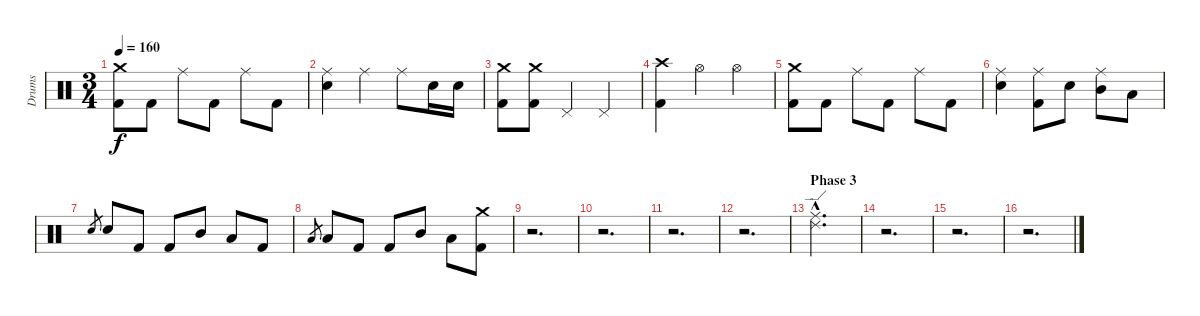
\track ("Drums" "Drums") {instrument percussion}
\staff {score}
\articulation defaults
\ts (3 4)
\tempo 160
\clef neutral
\ks c
("Crash medium (hit)" "Kick (hit) 2").8{dy f} "Kick (hit) 2".8 "Ride (middle)".8 "Kick (hit) 2".8 "Ride (middle)".8 "Kick (hit) 2".8 |
("Ride (middle)" "Snare (hit) 2").4 "Ride (middle)".4 "Ride (middle)".8 "Snare (hit) 2".16 "Snare (hit) 2".16 |
("Crash medium (hit)" "Kick (hit) 2").8 ("Crash medium (hit)" "Kick (hit) 2").8 "Pedal Hi-Hat (hit)".4 "Pedal Hi-Hat (hit)".4 |
("Crash high (hit)" "Kick (hit) 2").4 "Hi-Hat (open)".4 "Hi-Hat (open)".4 |
("Crash medium (hit)" "Kick (hit) 2").8 "Kick (hit) 2".8 "Ride (middle)".8 "Kick (hit) 2".8 "Ride (middle)".8 "Kick (hit) 2".8 |
("Ride (middle)" "Snare (hit) 2").4 ("Ride (middle)" "Kick (hit) 2").8 "Snare (hit) 2".8 ("Ride (middle)" "Mid Tom (hit)").8 "Low Tom (hit)".8 |
"Snare (hit) 2".8{gr} "Snare (hit) 2".8 "Kick (hit) 2".8 "Kick (hit) 2".8 "Mid Tom (hit)".8 "Low Tom (hit)".8 "Kick (hit) 2".8 |
"Low Tom (hit)".8{gr} "Low Tom (hit)".8 "Kick (hit) 2".8 "Kick (hit) 2".8 "Mid Tom (hit)".8 "Low Tom (hit)".8 ("Crash medium (hit)" "Kick (hit) 2").8 |
r.2{d} |
r.2{d} |
r.2{d} |
r.2{d} |
\section ("" "Phase 3")
("Ride (middle)"{hac} "Ride (edge) 2"{hac}).2{d} |
r.2{d} |
r.2{d} |
r.2{d}
